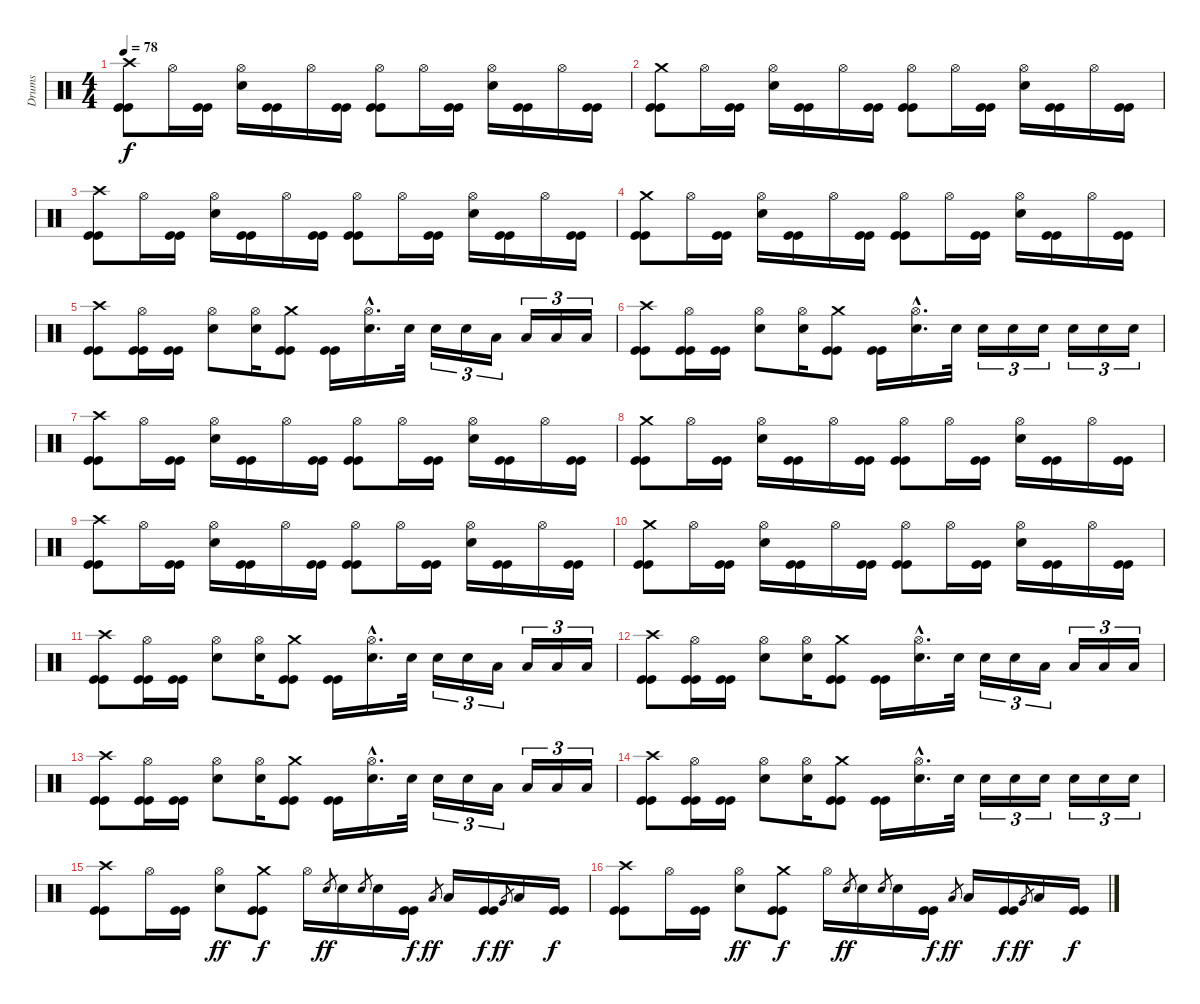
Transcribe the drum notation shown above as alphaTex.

\track ("Drums" "Drums") {instrument percussion}
\staff {score}
\articulation defaults
\ts (4 4)
\tempo 78
\clef neutral
\ks c
("Crash high (hit)" "Kick (hit)" "Kick (hit)").8{dy f} "Hi-Hat (open)".16 ("Kick (hit)" "Kick (hit)").16 ("Hi-Hat (open)" "Electric Snare (hit)").16 ("Kick (hit)" "Kick (hit)").16 "Hi-Hat (open)".16 ("Kick (hit)" "Kick (hit)").16 ("Hi-Hat (open)" "Kick (hit)" "Kick (hit)").8 "Hi-Hat (open)".16 ("Kick (hit)" "Kick (hit)").16 ("Hi-Hat (open)" "Electric Snare (hit)").16 ("Kick (hit)" "Kick (hit)").16 "Hi-Hat (open)".16 ("Kick (hit)" "Kick (hit)").16 |
("Crash medium (hit)" "Kick (hit)" "Kick (hit)").8 "Hi-Hat (open)".16 ("Kick (hit)" "Kick (hit)").16 ("Hi-Hat (open)" "Electric Snare (hit)").16 ("Kick (hit)" "Kick (hit)").16 "Hi-Hat (open)".16 ("Kick (hit)" "Kick (hit)").16 ("Hi-Hat (open)" "Kick (hit)" "Kick (hit)").8 "Hi-Hat (open)".16 ("Kick (hit)" "Kick (hit)").16 ("Hi-Hat (open)" "Electric Snare (hit)").16 ("Kick (hit)" "Kick (hit)").16 "Hi-Hat (open)".16 ("Kick (hit)" "Kick (hit)").16 |
("Crash high (hit)" "Kick (hit)" "Kick (hit)").8 "Hi-Hat (open)".16 ("Kick (hit)" "Kick (hit)").16 ("Hi-Hat (open)" "Electric Snare (hit)").16 ("Kick (hit)" "Kick (hit)").16 "Hi-Hat (open)".16 ("Kick (hit)" "Kick (hit)").16 ("Hi-Hat (open)" "Kick (hit)" "Kick (hit)").8 "Hi-Hat (open)".16 ("Kick (hit)" "Kick (hit)").16 ("Hi-Hat (open)" "Electric Snare (hit)").16 ("Kick (hit)" "Kick (hit)").16 "Hi-Hat (open)".16 ("Kick (hit)" "Kick (hit)").16 |
("Crash medium (hit)" "Kick (hit)" "Kick (hit)").8 "Hi-Hat (open)".16 ("Kick (hit)" "Kick (hit)").16 ("Hi-Hat (open)" "Electric Snare (hit)").16 ("Kick (hit)" "Kick (hit)").16 "Hi-Hat (open)".16 ("Kick (hit)" "Kick (hit)").16 ("Hi-Hat (open)" "Kick (hit)" "Kick (hit)").8 "Hi-Hat (open)".16 ("Kick (hit)" "Kick (hit)").16 ("Hi-Hat (open)" "Electric Snare (hit)").16 ("Kick (hit)" "Kick (hit)").16 "Hi-Hat (open)".16 ("Kick (hit)" "Kick (hit)").16 |
("Crash high (hit)" "Kick (hit)" "Kick (hit)").8 ("Hi-Hat (open)" "Kick (hit)" "Kick (hit)").16 ("Kick (hit)" "Kick (hit)").16 ("Hi-Hat (open)" "Electric Snare (hit)").8 ("Hi-Hat (open)" "Electric Snare (hit)").16 ("Crash medium (hit)" "Kick (hit)" "Kick (hit)").8 ("Kick (hit)" "Kick (hit)").16 ("Hi-Hat (open)"{hac} "Electric Snare (hit)"{hac}).16{d} "Electric Snare (hit)".32 "Electric Snare (hit)".16{tu (3 2)} "Electric Snare (hit)".16{tu (3 2)} "Low Tom (hit)".16{tu (3 2)} "Low Floor Tom (hit)".16{tu (3 2)} "Low Floor Tom (hit)".16{tu (3 2)} "Low Floor Tom (hit)".16{tu (3 2)} |
("Crash high (hit)" "Kick (hit)" "Kick (hit)").8 ("Hi-Hat (open)" "Kick (hit)" "Kick (hit)").16 ("Kick (hit)" "Kick (hit)").16 ("Hi-Hat (open)" "Electric Snare (hit)").8 ("Hi-Hat (open)" "Electric Snare (hit)").16 ("Crash medium (hit)" "Kick (hit)" "Kick (hit)").8 ("Kick (hit)" "Kick (hit)").16 ("Hi-Hat (open)"{hac} "Electric Snare (hit)"{hac}).16{d} "Electric Snare (hit)".32 "Electric Snare (hit)".16{tu (3 2)} "Electric Snare (hit)".16{tu (3 2)} "Electric Snare (hit)".16{tu (3 2)} "Electric Snare (hit)".16{tu (3 2)} "Electric Snare (hit)".16{tu (3 2)} "Electric Snare (hit)".16{tu (3 2)} |
("Crash high (hit)" "Kick (hit)" "Kick (hit)").8 "Hi-Hat (open)".16 ("Kick (hit)" "Kick (hit)").16 ("Hi-Hat (open)" "Electric Snare (hit)").16 ("Kick (hit)" "Kick (hit)").16 "Hi-Hat (open)".16 ("Kick (hit)" "Kick (hit)").16 ("Hi-Hat (open)" "Kick (hit)" "Kick (hit)").8 "Hi-Hat (open)".16 ("Kick (hit)" "Kick (hit)").16 ("Hi-Hat (open)" "Electric Snare (hit)").16 ("Kick (hit)" "Kick (hit)").16 "Hi-Hat (open)".16 ("Kick (hit)" "Kick (hit)").16 |
("Crash medium (hit)" "Kick (hit)" "Kick (hit)").8 "Hi-Hat (open)".16 ("Kick (hit)" "Kick (hit)").16 ("Hi-Hat (open)" "Electric Snare (hit)").16 ("Kick (hit)" "Kick (hit)").16 "Hi-Hat (open)".16 ("Kick (hit)" "Kick (hit)").16 ("Hi-Hat (open)" "Kick (hit)" "Kick (hit)").8 "Hi-Hat (open)".16 ("Kick (hit)" "Kick (hit)").16 ("Hi-Hat (open)" "Electric Snare (hit)").16 ("Kick (hit)" "Kick (hit)").16 "Hi-Hat (open)".16 ("Kick (hit)" "Kick (hit)").16 |
("Crash high (hit)" "Kick (hit)" "Kick (hit)").8 "Hi-Hat (open)".16 ("Kick (hit)" "Kick (hit)").16 ("Hi-Hat (open)" "Electric Snare (hit)").16 ("Kick (hit)" "Kick (hit)").16 "Hi-Hat (open)".16 ("Kick (hit)" "Kick (hit)").16 ("Hi-Hat (open)" "Kick (hit)" "Kick (hit)").8 "Hi-Hat (open)".16 ("Kick (hit)" "Kick (hit)").16 ("Hi-Hat (open)" "Electric Snare (hit)").16 ("Kick (hit)" "Kick (hit)").16 "Hi-Hat (open)".16 ("Kick (hit)" "Kick (hit)").16 |
("Crash medium (hit)" "Kick (hit)" "Kick (hit)").8 "Hi-Hat (open)".16 ("Kick (hit)" "Kick (hit)").16 ("Hi-Hat (open)" "Electric Snare (hit)").16 ("Kick (hit)" "Kick (hit)").16 "Hi-Hat (open)".16 ("Kick (hit)" "Kick (hit)").16 ("Hi-Hat (open)" "Kick (hit)" "Kick (hit)").8 "Hi-Hat (open)".16 ("Kick (hit)" "Kick (hit)").16 ("Hi-Hat (open)" "Electric Snare (hit)").16 ("Kick (hit)" "Kick (hit)").16 "Hi-Hat (open)".16 ("Kick (hit)" "Kick (hit)").16 |
("Crash high (hit)" "Kick (hit)" "Kick (hit)").8 ("Hi-Hat (open)" "Kick (hit)" "Kick (hit)").16 ("Kick (hit)" "Kick (hit)").16 ("Hi-Hat (open)" "Electric Snare (hit)").8 ("Hi-Hat (open)" "Electric Snare (hit)").16 ("Crash medium (hit)" "Kick (hit)" "Kick (hit)").8 ("Kick (hit)" "Kick (hit)").16 ("Hi-Hat (open)"{hac} "Electric Snare (hit)"{hac}).16{d} "Electric Snare (hit)".32 "Electric Snare (hit)".16{tu (3 2)} "Electric Snare (hit)".16{tu (3 2)} "Low Tom (hit)".16{tu (3 2)} "Low Floor Tom (hit)".16{tu (3 2)} "Low Floor Tom (hit)".16{tu (3 2)} "Low Floor Tom (hit)".16{tu (3 2)} |
("Crash high (hit)" "Kick (hit)" "Kick (hit)").8 ("Hi-Hat (open)" "Kick (hit)" "Kick (hit)").16 ("Kick (hit)" "Kick (hit)").16 ("Hi-Hat (open)" "Electric Snare (hit)").8 ("Hi-Hat (open)" "Electric Snare (hit)").16 ("Crash medium (hit)" "Kick (hit)" "Kick (hit)").8 ("Kick (hit)" "Kick (hit)").16 ("Hi-Hat (open)"{hac} "Electric Snare (hit)"{hac}).16{d} "Electric Snare (hit)".32 "Electric Snare (hit)".16{tu (3 2)} "Electric Snare (hit)".16{tu (3 2)} "Low Tom (hit)".16{tu (3 2)} "Low Floor Tom (hit)".16{tu (3 2)} "Low Floor Tom (hit)".16{tu (3 2)} "Low Floor Tom (hit)".16{tu (3 2)} |
("Crash high (hit)" "Kick (hit)" "Kick (hit)").8 ("Hi-Hat (open)" "Kick (hit)" "Kick (hit)").16 ("Kick (hit)" "Kick (hit)").16 ("Hi-Hat (open)" "Electric Snare (hit)").8 ("Hi-Hat (open)" "Electric Snare (hit)").16 ("Crash medium (hit)" "Kick (hit)" "Kick (hit)").8 ("Kick (hit)" "Kick (hit)").16 ("Hi-Hat (open)"{hac} "Electric Snare (hit)"{hac}).16{d} "Electric Snare (hit)".32 "Electric Snare (hit)".16{tu (3 2)} "Electric Snare (hit)".16{tu (3 2)} "Low Tom (hit)".16{tu (3 2)} "Low Floor Tom (hit)".16{tu (3 2)} "Low Floor Tom (hit)".16{tu (3 2)} "Low Floor Tom (hit)".16{tu (3 2)} |
("Crash high (hit)" "Kick (hit)" "Kick (hit)").8 ("Hi-Hat (open)" "Kick (hit)" "Kick (hit)").16 ("Kick (hit)" "Kick (hit)").16 ("Hi-Hat (open)" "Electric Snare (hit)").8 ("Hi-Hat (open)" "Electric Snare (hit)").16 ("Crash medium (hit)" "Kick (hit)" "Kick (hit)").8 ("Kick (hit)" "Kick (hit)").16 ("Hi-Hat (open)"{hac} "Electric Snare (hit)"{hac}).16{d} "Electric Snare (hit)".32 "Electric Snare (hit)".16{tu (3 2)} "Electric Snare (hit)".16{tu (3 2)} "Electric Snare (hit)".16{tu (3 2)} "Electric Snare (hit)".16{tu (3 2)} "Electric Snare (hit)".16{tu (3 2)} "Electric Snare (hit)".16{tu (3 2)} |
("Crash high (hit)" "Kick (hit)" "Kick (hit)").8 "Hi-Hat (open)".16 ("Kick (hit)" "Kick (hit)").16 ("Hi-Hat (open)" "Electric Snare (hit)").8{dy ff} ("Crash medium (hit)" "Kick (hit)" "Kick (hit)").8{dy f} "Hi-Hat (open)".16 "Electric Snare (hit)".8{gr dy ff} "Electric Snare (hit)".16 "Electric Snare (hit)".8{gr} "Electric Snare (hit)".16 ("Kick (hit)" "Kick (hit)").16{dy f} "Low Tom (hit)".8{gr dy ff} "Low Tom (hit)".16 ("Kick (hit)" "Kick (hit)").16{dy f} "Very Low Tom (hit)".8{gr dy ff} "Low Floor Tom (hit)".16 ("Kick (hit)" "Kick (hit)").16{dy f} |
("Crash high (hit)" "Kick (hit)" "Kick (hit)").8 "Hi-Hat (open)".16 ("Kick (hit)" "Kick (hit)").16 ("Hi-Hat (open)" "Electric Snare (hit)").8{dy ff} ("Crash medium (hit)" "Kick (hit)" "Kick (hit)").8{dy f} "Hi-Hat (open)".16 "Electric Snare (hit)".8{gr dy ff} "Electric Snare (hit)".16 "Electric Snare (hit)".8{gr} "Electric Snare (hit)".16 ("Kick (hit)" "Kick (hit)").16{dy f} "Low Tom (hit)".8{gr dy ff} "Low Tom (hit)".16 ("Kick (hit)" "Kick (hit)").16{dy f} "Very Low Tom (hit)".8{gr dy ff} "Low Floor Tom (hit)".16 ("Kick (hit)" "Kick (hit)").16{dy f}
